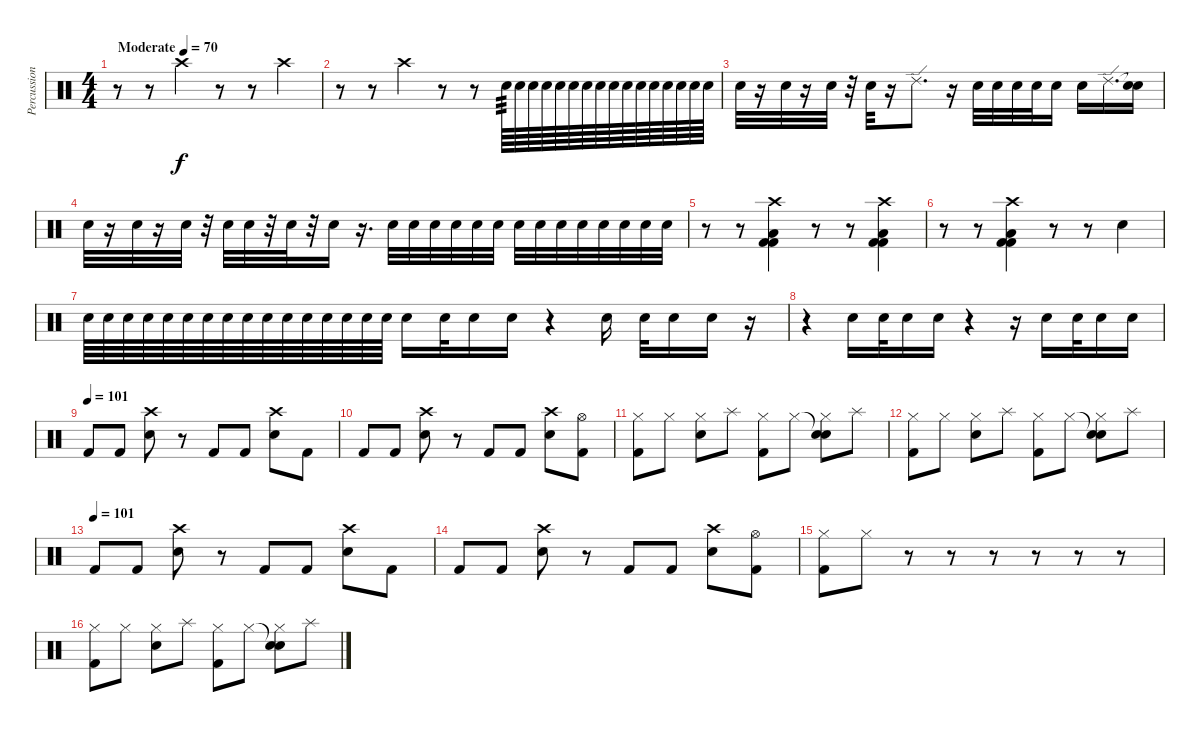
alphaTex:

\track ("Percussion" "Percussion") {instrument percussion}
\staff {score}
\articulation defaults
\ts (4 4)
\tempo (70 "Moderate")
\clef neutral
\ks c
r.8{dy f} r.8 "Crash high (hit)".4 r.8 r.8 "Crash high (hit)".4 |
r.8 r.8 "Crash high (hit)".4 r.8 r.8 "Electric Snare (hit)".64{tp 3} "Electric Snare (hit)".64 "Electric Snare (hit)".64 "Electric Snare (hit)".64 "Electric Snare (hit)".64 "Electric Snare (hit)".64 "Electric Snare (hit)".64 "Electric Snare (hit)".64 "Electric Snare (hit)".64 "Electric Snare (hit)".64 "Electric Snare (hit)".64 "Electric Snare (hit)".64 "Electric Snare (hit)".64 "Electric Snare (hit)".64 "Electric Snare (hit)".64 "Electric Snare (hit)".64 |
"Electric Snare (hit)".32 r.16 "Electric Snare (hit)".32 r.16 "Electric Snare (hit)".32 r.32 "Electric Snare (hit)".32 r.16 "Ride (edge) 2".8{d} r.16 "Electric Snare (hit)".32 "Electric Snare (hit)".32 "Electric Snare (hit)".32 "Electric Snare (hit)".32 "Electric Snare (hit)".16 "Electric Snare (hit)".16 "Ride (edge) 2".16{d} ("Snare (hit)"{t} "Electric Snare (hit)").16 |
"Electric Snare (hit)".32 r.16 "Electric Snare (hit)".32 r.16 "Electric Snare (hit)".32 r.32 "Electric Snare (hit)".32 "Electric Snare (hit)".32 r.32 "Electric Snare (hit)".32 r.32 "Electric Snare (hit)".16 r.16{d} "Electric Snare (hit)".32 "Electric Snare (hit)".32 "Electric Snare (hit)".32 "Electric Snare (hit)".32 "Electric Snare (hit)".32 "Electric Snare (hit)".32 "Electric Snare (hit)".32 "Electric Snare (hit)".32 "Electric Snare (hit)".32 "Electric Snare (hit)".32 "Electric Snare (hit)".32 "Electric Snare (hit)".32 "Electric Snare (hit)".32 "Electric Snare (hit)".32 |
r.8 r.8 ("Crash high (hit)" "Kick (hit) 2" "Kick (hit) 2" "Low Floor Tom (hit)").4 r.8 r.8 ("Crash high (hit)" "Kick (hit) 2" "Kick (hit) 2" "Low Floor Tom (hit)").4 |
r.8 r.8 ("Crash high (hit)" "Kick (hit) 2" "Kick (hit) 2" "Low Floor Tom (hit)").4 r.8 r.8 "Electric Snare (hit)".4 |
"Electric Snare (hit)".64 "Electric Snare (hit)".64 "Electric Snare (hit)".64 "Electric Snare (hit)".64 "Electric Snare (hit)".64 "Electric Snare (hit)".64 "Electric Snare (hit)".64 "Electric Snare (hit)".64 "Electric Snare (hit)".64 "Electric Snare (hit)".64 "Electric Snare (hit)".64 "Electric Snare (hit)".64 "Electric Snare (hit)".64 "Electric Snare (hit)".64 "Electric Snare (hit)".64 "Electric Snare (hit)".64 "Electric Snare (hit)".16 "Electric Snare (hit)".32 "Electric Snare (hit)".16 "Electric Snare (hit)".16 r.4 "Electric Snare (hit)".16 "Electric Snare (hit)".32 "Electric Snare (hit)".16 "Electric Snare (hit)".16 r.16 |
r.4 "Electric Snare (hit)".16 "Electric Snare (hit)".32 "Electric Snare (hit)".16 "Electric Snare (hit)".16 r.4 r.16 "Electric Snare (hit)".16 "Electric Snare (hit)".32 "Electric Snare (hit)".16 "Electric Snare (hit)".16 |
\tempo (101)
"Kick (hit) 2".8 "Kick (hit) 2".8 ("Crash high (hit)" "Electric Snare (hit)").8 r.8 "Kick (hit) 2".8 "Kick (hit) 2".8 ("Crash high (hit)" "Electric Snare (hit)").8 "Kick (hit) 2".8 |
"Kick (hit) 2".8 "Kick (hit) 2".8 ("Crash high (hit)" "Electric Snare (hit)").8 r.8 "Kick (hit) 2".8 "Kick (hit) 2".8 ("Crash high (hit)" "Electric Snare (hit)").8 ("Hi-Hat (open)" "Kick (hit) 2").8 |
("Hi-Hat (closed)" "Kick (hit) 2").8 "Hi-Hat (closed)".8 ("Hi-Hat (closed)" "Electric Snare (hit)").8 "Splash (hit)".8 ("Hi-Hat (closed)" "Kick (hit) 2").8 "Hi-Hat (closed)".8 ("Snare (hit)"{t} "Hi-Hat (closed)" "Electric Snare (hit)").8 "Splash (hit)".8 |
("Hi-Hat (closed)" "Kick (hit) 2").8 "Hi-Hat (closed)".8 ("Hi-Hat (closed)" "Electric Snare (hit)").8 "Splash (hit)".8 ("Hi-Hat (closed)" "Kick (hit) 2").8 "Hi-Hat (closed)".8 ("Snare (hit)"{t} "Hi-Hat (closed)" "Electric Snare (hit)").8 "Splash (hit)".8 |
\tempo (101)
"Kick (hit) 2".8 "Kick (hit) 2".8 ("Crash high (hit)" "Electric Snare (hit)").8 r.8 "Kick (hit) 2".8 "Kick (hit) 2".8 ("Crash high (hit)" "Electric Snare (hit)").8 "Kick (hit) 2".8 |
"Kick (hit) 2".8 "Kick (hit) 2".8 ("Crash high (hit)" "Electric Snare (hit)").8 r.8 "Kick (hit) 2".8 "Kick (hit) 2".8 ("Crash high (hit)" "Electric Snare (hit)").8 ("Hi-Hat (open)" "Kick (hit) 2").8 |
("Hi-Hat (closed)" "Kick (hit) 2").8 "Hi-Hat (closed)".8 r.8 r.8 r.8 r.8 r.8 r.8 |
("Hi-Hat (closed)" "Kick (hit) 2").8 "Hi-Hat (closed)".8 ("Hi-Hat (closed)" "Electric Snare (hit)").8 "Splash (hit)".8 ("Hi-Hat (closed)" "Kick (hit) 2").8 "Hi-Hat (closed)".8 ("Snare (hit)"{t} "Hi-Hat (closed)" "Electric Snare (hit)").8 "Splash (hit)".8
